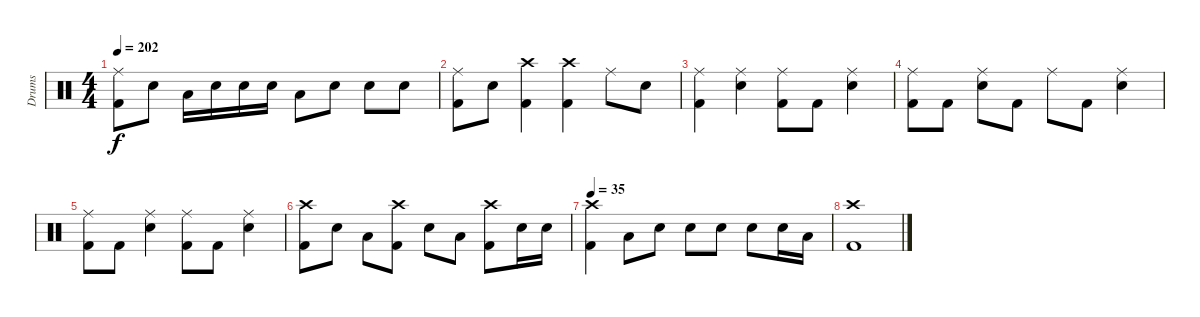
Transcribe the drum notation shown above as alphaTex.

\track ("Drums" "Drums") {instrument percussion}
\staff {score}
\articulation defaults
\ts (4 4)
\tempo 202
\clef neutral
\ks c
("Ride (middle)" "Kick (hit) 2").8{dy f} "Electric Snare (hit)".8 "Low Tom (hit)".16 "Electric Snare (hit)".16 "Electric Snare (hit)".16 "Electric Snare (hit)".16 "Low Tom (hit)".8 "Electric Snare (hit)".8 "Electric Snare (hit)".8 "Electric Snare (hit)".8 |
("Ride (middle)" "Kick (hit) 2").8 "Electric Snare (hit)".8 ("Crash high (hit)" "Kick (hit) 2").4 ("Crash high (hit)" "Kick (hit) 2").4 "Ride (middle)".8 "Electric Snare (hit)".8 |
("Ride (middle)" "Kick (hit) 2").4 ("Ride (middle)" "Electric Snare (hit)").4 ("Ride (middle)" "Kick (hit) 2").8 "Kick (hit) 2".8 ("Ride (middle)" "Electric Snare (hit)").4 |
("Ride (middle)" "Kick (hit) 2").8 "Kick (hit) 2".8 ("Ride (middle)" "Electric Snare (hit)").8 "Kick (hit) 2".8 "Ride (middle)".8 "Kick (hit) 2".8 ("Ride (middle)" "Electric Snare (hit)").4 |
("Ride (middle)" "Kick (hit) 2").8 "Kick (hit) 2".8 ("Ride (middle)" "Electric Snare (hit)").4 ("Ride (middle)" "Kick (hit) 2").8 "Kick (hit) 2".8 ("Ride (middle)" "Electric Snare (hit)").4 |
("Crash high (hit)" "Kick (hit) 2").8 "Electric Snare (hit)".8 "Low Tom (hit)".8 ("Crash high (hit)" "Kick (hit) 2").8 "Electric Snare (hit)".8 "Low Tom (hit)".8 ("Crash high (hit)" "Kick (hit) 2").8 "Electric Snare (hit)".16 "Electric Snare (hit)".16 |
\tempo 35
("Crash high (hit)" "Kick (hit) 2").4 "Low Tom (hit)".8 "Electric Snare (hit)".8 "Electric Snare (hit)".8 "Electric Snare (hit)".8 "Electric Snare (hit)".8 "Electric Snare (hit)".16 "Low Tom (hit)".16 |
("Crash high (hit)" "Kick (hit) 2").1
